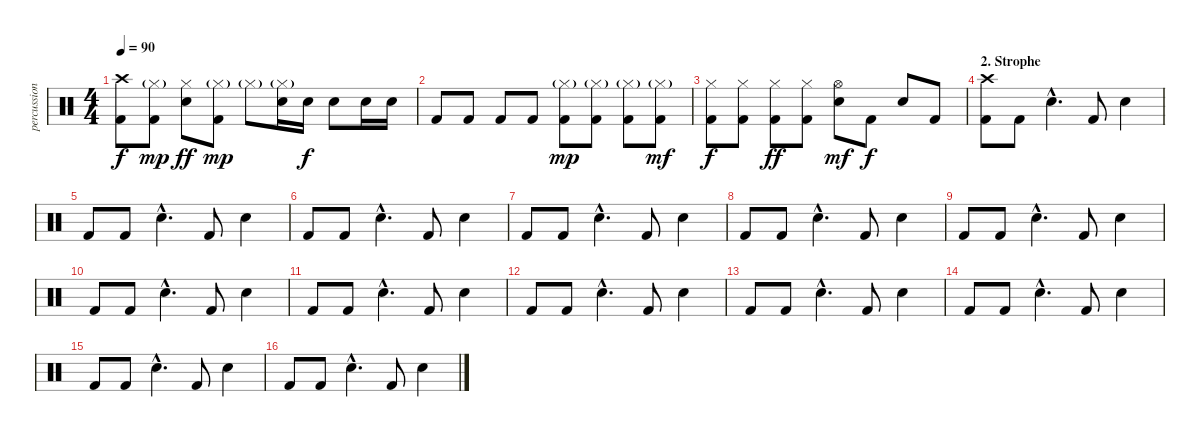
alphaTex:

\track ("percussion" "percussion") {instrument percussion}
\staff {score}
\articulation defaults
\ts (4 4)
\tempo 90
\clef neutral
\ks c
("Crash high (hit)" "Kick (hit) 2").8{dy f} ("Hi-Hat (closed)"{g} "Kick (hit) 2").8{dy mp} ("Hi-Hat (closed)" "Electric Snare (hit)").8{dy ff} ("Hi-Hat (closed)"{g} "Kick (hit) 2").8{dy mp} "Hi-Hat (closed)"{g}.8 ("Hi-Hat (closed)"{g} "Electric Snare (hit)").16 "Electric Snare (hit)".16{dy f} "Electric Snare (hit)".8 "Electric Snare (hit)".16 "Electric Snare (hit)".16 |
"Kick (hit) 2".8{volume 3} "Kick (hit) 2".8{volume 12} "Kick (hit) 2".8 "Kick (hit) 2".8 ("Hi-Hat (closed)"{g} "Kick (hit) 2").8{dy mp} ("Hi-Hat (closed)"{g} "Kick (hit) 2").8 ("Hi-Hat (closed)"{g} "Kick (hit) 2").8 ("Hi-Hat (closed)"{g} "Kick (hit) 2").8{dy mf} |
("Hi-Hat (closed)" "Kick (hit) 2").8{dy f} ("Hi-Hat (closed)" "Kick (hit) 2").8 ("Hi-Hat (closed)" "Kick (hit) 2").8{dy ff} ("Hi-Hat (closed)" "Kick (hit) 2").8 ("Hi-Hat (open)" "Electric Snare (hit)").8{dy mf} "Kick (hit) 2".8{dy f} "Electric Snare (hit)".8 "Kick (hit) 2".8 |
\section ("" "2. Strophe")
("Crash high (hit)" "Kick (hit) 2").8 "Kick (hit) 2".8 "Electric Snare (hit)"{hac}.4{d} "Kick (hit) 2".8 "Electric Snare (hit)".4 |
"Kick (hit) 2".8 "Kick (hit) 2".8 "Electric Snare (hit)"{hac}.4{d} "Kick (hit) 2".8 "Electric Snare (hit)".4 |
"Kick (hit) 2".8 "Kick (hit) 2".8 "Electric Snare (hit)"{hac}.4{d} "Kick (hit) 2".8 "Electric Snare (hit)".4 |
"Kick (hit) 2".8 "Kick (hit) 2".8 "Electric Snare (hit)"{hac}.4{d} "Kick (hit) 2".8 "Electric Snare (hit)".4 |
"Kick (hit) 2".8 "Kick (hit) 2".8 "Electric Snare (hit)"{hac}.4{d} "Kick (hit) 2".8 "Electric Snare (hit)".4 |
"Kick (hit) 2".8 "Kick (hit) 2".8 "Electric Snare (hit)"{hac}.4{d} "Kick (hit) 2".8 "Electric Snare (hit)".4 |
"Kick (hit) 2".8 "Kick (hit) 2".8 "Electric Snare (hit)"{hac}.4{d} "Kick (hit) 2".8 "Electric Snare (hit)".4 |
"Kick (hit) 2".8 "Kick (hit) 2".8 "Electric Snare (hit)"{hac}.4{d} "Kick (hit) 2".8 "Electric Snare (hit)".4 |
"Kick (hit) 2".8 "Kick (hit) 2".8 "Electric Snare (hit)"{hac}.4{d} "Kick (hit) 2".8 "Electric Snare (hit)".4 |
"Kick (hit) 2".8 "Kick (hit) 2".8 "Electric Snare (hit)"{hac}.4{d} "Kick (hit) 2".8 "Electric Snare (hit)".4 |
"Kick (hit) 2".8 "Kick (hit) 2".8 "Electric Snare (hit)"{hac}.4{d} "Kick (hit) 2".8 "Electric Snare (hit)".4 |
"Kick (hit) 2".8 "Kick (hit) 2".8 "Electric Snare (hit)"{hac}.4{d} "Kick (hit) 2".8 "Electric Snare (hit)".4 |
"Kick (hit) 2".8 "Kick (hit) 2".8 "Electric Snare (hit)"{hac}.4{d} "Kick (hit) 2".8 "Electric Snare (hit)".4
